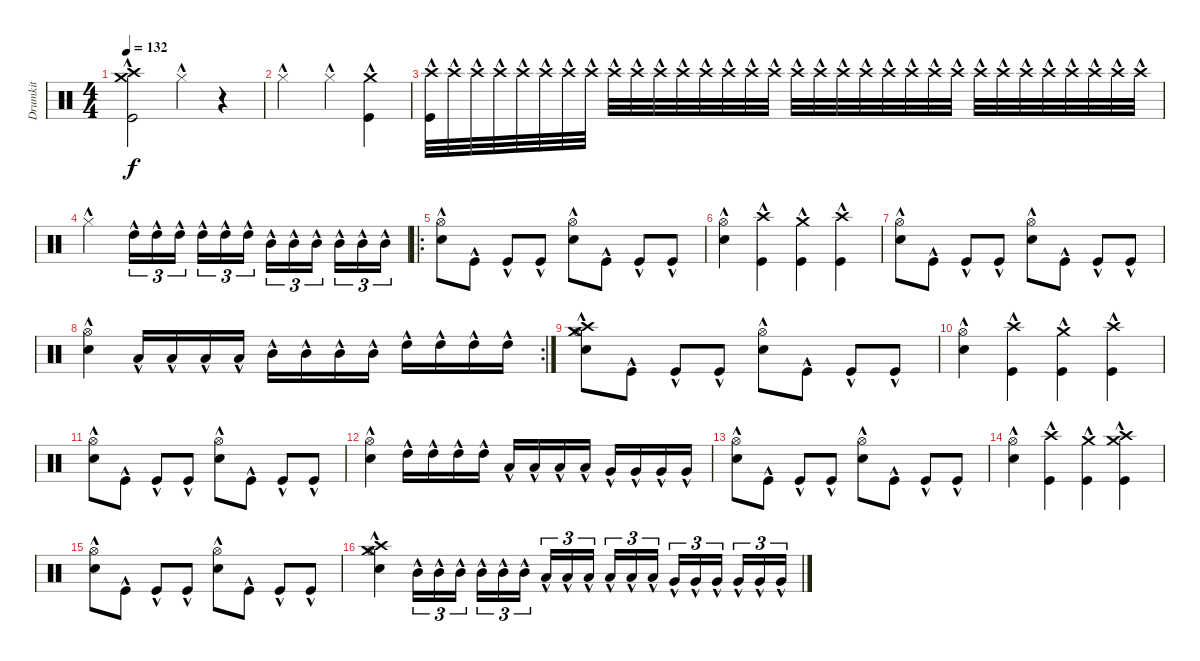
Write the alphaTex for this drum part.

\track ("Drumkit" "Drumkit") {instrument percussion}
\staff {score}
\articulation defaults
\ts (4 4)
\tempo 132
\clef neutral
\ks c
("Crash high (hit)"{hac} "Crash medium (hit)"{hac} "Kick (hit)"{hac}).2{dy f} "Hi-Hat (closed)"{hac}.4 r.4 |
"Hi-Hat (closed)"{hac}.2 "Hi-Hat (closed)"{hac}.4 ("Crash medium (hit)"{hac} "Kick (hit)"{hac}).4 |
("Crash high (hit)"{hac} "Kick (hit)"{hac}).32 "Crash high (hit)"{hac}.32 "Crash high (hit)"{hac}.32 "Crash high (hit)"{hac}.32 "Crash high (hit)"{hac}.32 "Crash high (hit)"{hac}.32 "Crash high (hit)"{hac}.32 "Crash high (hit)"{hac}.32 "Crash high (hit)"{hac}.32 "Crash high (hit)"{hac}.32 "Crash high (hit)"{hac}.32 "Crash high (hit)"{hac}.32 "Crash high (hit)"{hac}.32 "Crash high (hit)"{hac}.32 "Crash high (hit)"{hac}.32 "Crash high (hit)"{hac}.32 "Crash high (hit)"{hac}.32 "Crash high (hit)"{hac}.32 "Crash high (hit)"{hac}.32 "Crash high (hit)"{hac}.32 "Crash high (hit)"{hac}.32 "Crash high (hit)"{hac}.32 "Crash high (hit)"{hac}.32 "Crash high (hit)"{hac}.32 "Crash high (hit)"{hac}.32 "Crash high (hit)"{hac}.32 "Crash high (hit)"{hac}.32 "Crash high (hit)"{hac}.32 "Crash high (hit)"{hac}.32 "Crash high (hit)"{hac}.32 "Crash high (hit)"{hac}.32 "Crash high (hit)"{hac}.32 |
"Hi-Hat (closed)"{hac}.2 "High Tom (hit)"{hac}.16{tu (3 2)} "High Tom (hit)"{hac}.16{tu (3 2)} "High Tom (hit)"{hac}.16{tu (3 2)} "High Tom (hit)"{hac}.16{tu (3 2)} "High Tom (hit)"{hac}.16{tu (3 2)} "High Tom (hit)"{hac}.16{tu (3 2)} "Mid Tom (hit)"{hac}.16{tu (3 2)} "Mid Tom (hit)"{hac}.16{tu (3 2)} "Mid Tom (hit)"{hac}.16{tu (3 2)} "Mid Tom (hit)"{hac}.16{tu (3 2)} "Mid Tom (hit)"{hac}.16{tu (3 2)} "Mid Tom (hit)"{hac}.16{tu (3 2)} |
\ro
("Hi-Hat (open)"{hac} "Snare (hit) 2"{hac}).8 "Kick (hit)"{hac}.8 "Kick (hit)"{hac}.8 "Kick (hit)"{hac}.8 ("Snare (hit) 2"{hac} "Hi-Hat (open)"{hac}).8 "Kick (hit)"{hac}.8 "Kick (hit)"{hac}.8 "Kick (hit)"{hac}.8 |
("Hi-Hat (open)"{hac} "Snare (hit) 2"{hac}).4 ("Crash high (hit)"{hac} "Kick (hit)"{hac}).4 ("Crash medium (hit)"{hac} "Kick (hit)"{hac}).4 ("Crash high (hit)"{hac} "Kick (hit)"{hac}).4 |
("Hi-Hat (open)"{hac} "Snare (hit) 2"{hac}).8 "Kick (hit)"{hac}.8 "Kick (hit)"{hac}.8 "Kick (hit)"{hac}.8 ("Hi-Hat (open)"{hac} "Snare (hit) 2"{hac}).8 "Kick (hit)"{hac}.8 "Kick (hit)"{hac}.8 "Kick (hit)"{hac}.8 |
\rc 2
("Hi-Hat (open)"{hac} "Snare (hit) 2"{hac}).4 "Low Tom (hit)"{hac}.16 "Low Tom (hit)"{hac}.16 "Low Tom (hit)"{hac}.16 "Low Tom (hit)"{hac}.16 "Mid Tom (hit)"{hac}.16 "Mid Tom (hit)"{hac}.16 "Mid Tom (hit)"{hac}.16 "Mid Tom (hit)"{hac}.16 "High Tom (hit)"{hac}.16 "High Tom (hit)"{hac}.16 "High Tom (hit)"{hac}.16 "High Tom (hit)"{hac}.16 |
("Hi-Hat (open)"{hac} "Snare (hit) 2"{hac} "Crash high (hit)"{hac} "Crash medium (hit)"{hac}).8 "Kick (hit)"{hac}.8 "Kick (hit)"{hac}.8 "Kick (hit)"{hac}.8 ("Snare (hit) 2"{hac} "Hi-Hat (open)"{hac}).8 "Kick (hit)"{hac}.8 "Kick (hit)"{hac}.8 "Kick (hit)"{hac}.8 |
("Hi-Hat (open)"{hac} "Snare (hit) 2"{hac}).4 ("Crash high (hit)"{hac} "Kick (hit)"{hac}).4 ("Crash medium (hit)"{hac} "Kick (hit)"{hac}).4 ("Crash high (hit)"{hac} "Kick (hit)"{hac}).4 |
("Hi-Hat (open)"{hac} "Snare (hit) 2"{hac}).8 "Kick (hit)"{hac}.8 "Kick (hit)"{hac}.8 "Kick (hit)"{hac}.8 ("Hi-Hat (open)"{hac} "Snare (hit) 2"{hac}).8 "Kick (hit)"{hac}.8 "Kick (hit)"{hac}.8 "Kick (hit)"{hac}.8 |
("Hi-Hat (open)"{hac} "Snare (hit) 2"{hac}).4 "High Tom (hit)"{hac}.16 "High Tom (hit)"{hac}.16 "High Tom (hit)"{hac}.16 "High Tom (hit)"{hac}.16 "Low Tom (hit)"{hac}.16 "Low Tom (hit)"{hac}.16 "Low Tom (hit)"{hac}.16 "Low Tom (hit)"{hac}.16 "Very Low Tom (hit)"{hac}.16 "Very Low Tom (hit)"{hac}.16 "Very Low Tom (hit)"{hac}.16 "Very Low Tom (hit)"{hac}.16 |
("Hi-Hat (open)"{hac} "Snare (hit) 2"{hac}).8 "Kick (hit)"{hac}.8 "Kick (hit)"{hac}.8 "Kick (hit)"{hac}.8 ("Hi-Hat (open)"{hac} "Snare (hit) 2"{hac}).8 "Kick (hit)"{hac}.8 "Kick (hit)"{hac}.8 "Kick (hit)"{hac}.8 |
("Hi-Hat (open)"{hac} "Snare (hit) 2"{hac}).4 ("Crash high (hit)"{hac} "Kick (hit)"{hac}).4 ("Crash medium (hit)"{hac} "Kick (hit)"{hac}).4 ("Kick (hit)"{hac} "Crash high (hit)"{hac} "Crash medium (hit)"{hac}).4 |
("Hi-Hat (open)"{hac} "Snare (hit) 2"{hac}).8 "Kick (hit)"{hac}.8 "Kick (hit)"{hac}.8 "Kick (hit)"{hac}.8 ("Hi-Hat (open)"{hac} "Snare (hit) 2"{hac}).8 "Kick (hit)"{hac}.8 "Kick (hit)"{hac}.8 "Kick (hit)"{hac}.8 |
("Hi-Hat (open)"{hac} "Snare (hit) 2"{hac} "Crash high (hit)"{hac} "Crash medium (hit)"{hac}).4 "Mid Tom (hit)"{hac}.16{tu (3 2)} "Mid Tom (hit)"{hac}.16{tu (3 2)} "Mid Tom (hit)"{hac}.16{tu (3 2)} "Mid Tom (hit)"{hac}.16{tu (3 2)} "Mid Tom (hit)"{hac}.16{tu (3 2)} "Mid Tom (hit)"{hac}.16{tu (3 2)} "Low Tom (hit)"{hac}.16{tu (3 2)} "Low Tom (hit)"{hac}.16{tu (3 2)} "Low Tom (hit)"{hac}.16{tu (3 2)} "Low Tom (hit)"{hac}.16{tu (3 2)} "Low Tom (hit)"{hac}.16{tu (3 2)} "Low Tom (hit)"{hac}.16{tu (3 2)} "Very Low Tom (hit)"{hac}.16{tu (3 2)} "Very Low Tom (hit)"{hac}.16{tu (3 2)} "Very Low Tom (hit)"{hac}.16{tu (3 2)} "Very Low Tom (hit)"{hac}.16{tu (3 2)} "Very Low Tom (hit)"{hac}.16{tu (3 2)} "Very Low Tom (hit)"{hac}.16{tu (3 2)}
